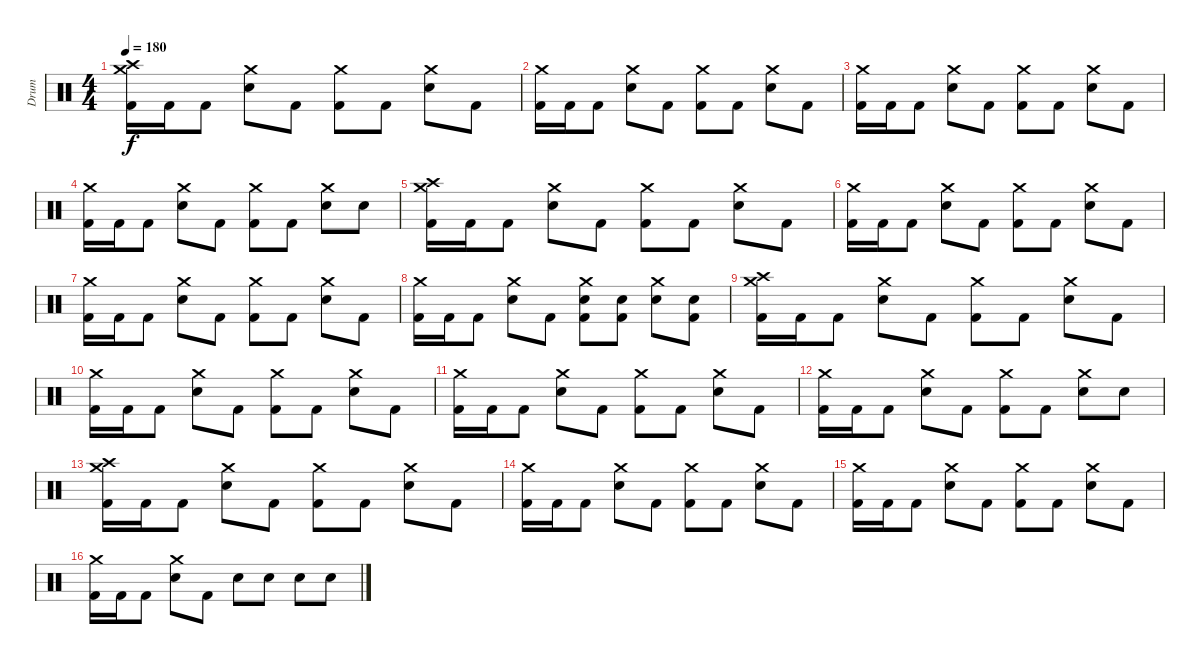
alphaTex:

\track ("Drum" "Drum") {instrument percussion}
\staff {score}
\articulation defaults
\ts (4 4)
\section ("" "")
\tempo 180
\clef neutral
\ks c
("Crash high (hit)" "Crash medium (hit)" "Kick (hit) 2").16{dy f} "Kick (hit) 2".16 "Kick (hit) 2".8 ("Crash medium (hit)" "Snare (hit) 2").8 "Kick (hit) 2".8 ("Crash medium (hit)" "Kick (hit) 2").8 "Kick (hit) 2".8 ("Crash medium (hit)" "Snare (hit) 2").8 "Kick (hit) 2".8 |
("Crash medium (hit)" "Kick (hit) 2").16 "Kick (hit) 2".16 "Kick (hit) 2".8 ("Crash medium (hit)" "Snare (hit) 2").8 "Kick (hit) 2".8 ("Crash medium (hit)" "Kick (hit) 2").8 "Kick (hit) 2".8 ("Crash medium (hit)" "Snare (hit) 2").8 "Kick (hit) 2".8 |
("Crash medium (hit)" "Kick (hit) 2").16 "Kick (hit) 2".16 "Kick (hit) 2".8 ("Crash medium (hit)" "Snare (hit) 2").8 "Kick (hit) 2".8 ("Crash medium (hit)" "Kick (hit) 2").8 "Kick (hit) 2".8 ("Crash medium (hit)" "Snare (hit) 2").8 "Kick (hit) 2".8 |
("Crash medium (hit)" "Kick (hit) 2").16 "Kick (hit) 2".16 "Kick (hit) 2".8 ("Crash medium (hit)" "Snare (hit) 2").8 "Kick (hit) 2".8 ("Crash medium (hit)" "Kick (hit) 2").8 "Kick (hit) 2".8 ("Crash medium (hit)" "Snare (hit) 2").8 "Snare (hit) 2".8 |
("Crash high (hit)" "Crash medium (hit)" "Kick (hit) 2").16 "Kick (hit) 2".16 "Kick (hit) 2".8 ("Crash medium (hit)" "Snare (hit) 2").8 "Kick (hit) 2".8 ("Crash medium (hit)" "Kick (hit) 2").8 "Kick (hit) 2".8 ("Crash medium (hit)" "Snare (hit) 2").8 "Kick (hit) 2".8 |
("Crash medium (hit)" "Kick (hit) 2").16 "Kick (hit) 2".16 "Kick (hit) 2".8 ("Crash medium (hit)" "Snare (hit) 2").8 "Kick (hit) 2".8 ("Crash medium (hit)" "Kick (hit) 2").8 "Kick (hit) 2".8 ("Crash medium (hit)" "Snare (hit) 2").8 "Kick (hit) 2".8 |
("Crash medium (hit)" "Kick (hit) 2").16 "Kick (hit) 2".16 "Kick (hit) 2".8 ("Crash medium (hit)" "Snare (hit) 2").8 "Kick (hit) 2".8 ("Crash medium (hit)" "Kick (hit) 2").8 "Kick (hit) 2".8 ("Crash medium (hit)" "Snare (hit) 2").8 "Kick (hit) 2".8 |
("Crash medium (hit)" "Kick (hit) 2").16 "Kick (hit) 2".16 "Kick (hit) 2".8 ("Crash medium (hit)" "Snare (hit) 2").8 "Kick (hit) 2".8 ("Crash medium (hit)" "Snare (hit) 2" "Kick (hit) 2").8 ("Snare (hit) 2" "Kick (hit) 2").8 ("Crash medium (hit)" "Snare (hit) 2").8 ("Snare (hit) 2" "Kick (hit) 2").8 |
("Crash high (hit)" "Crash medium (hit)" "Kick (hit) 2").16 "Kick (hit) 2".16 "Kick (hit) 2".8 ("Crash medium (hit)" "Snare (hit) 2").8 "Kick (hit) 2".8 ("Crash medium (hit)" "Kick (hit) 2").8 "Kick (hit) 2".8 ("Crash medium (hit)" "Snare (hit) 2").8 "Kick (hit) 2".8 |
("Crash medium (hit)" "Kick (hit) 2").16 "Kick (hit) 2".16 "Kick (hit) 2".8 ("Crash medium (hit)" "Snare (hit) 2").8 "Kick (hit) 2".8 ("Crash medium (hit)" "Kick (hit) 2").8 "Kick (hit) 2".8 ("Crash medium (hit)" "Snare (hit) 2").8 "Kick (hit) 2".8 |
("Crash medium (hit)" "Kick (hit) 2").16 "Kick (hit) 2".16 "Kick (hit) 2".8 ("Crash medium (hit)" "Snare (hit) 2").8 "Kick (hit) 2".8 ("Crash medium (hit)" "Kick (hit) 2").8 "Kick (hit) 2".8 ("Crash medium (hit)" "Snare (hit) 2").8 "Kick (hit) 2".8 |
("Crash medium (hit)" "Kick (hit) 2").16 "Kick (hit) 2".16 "Kick (hit) 2".8 ("Crash medium (hit)" "Snare (hit) 2").8 "Kick (hit) 2".8 ("Crash medium (hit)" "Kick (hit) 2").8 "Kick (hit) 2".8 ("Crash medium (hit)" "Snare (hit) 2").8 "Snare (hit) 2".8 |
("Crash high (hit)" "Crash medium (hit)" "Kick (hit) 2").16 "Kick (hit) 2".16 "Kick (hit) 2".8 ("Crash medium (hit)" "Snare (hit) 2").8 "Kick (hit) 2".8 ("Crash medium (hit)" "Kick (hit) 2").8 "Kick (hit) 2".8 ("Crash medium (hit)" "Snare (hit) 2").8 "Kick (hit) 2".8 |
("Crash medium (hit)" "Kick (hit) 2").16 "Kick (hit) 2".16 "Kick (hit) 2".8 ("Crash medium (hit)" "Snare (hit) 2").8 "Kick (hit) 2".8 ("Crash medium (hit)" "Kick (hit) 2").8 "Kick (hit) 2".8 ("Crash medium (hit)" "Snare (hit) 2").8 "Kick (hit) 2".8 |
("Crash medium (hit)" "Kick (hit) 2").16 "Kick (hit) 2".16 "Kick (hit) 2".8 ("Crash medium (hit)" "Snare (hit) 2").8 "Kick (hit) 2".8 ("Crash medium (hit)" "Kick (hit) 2").8 "Kick (hit) 2".8 ("Crash medium (hit)" "Snare (hit) 2").8 "Kick (hit) 2".8 |
("Crash medium (hit)" "Kick (hit) 2").16 "Kick (hit) 2".16 "Kick (hit) 2".8 ("Crash medium (hit)" "Snare (hit) 2").8 "Kick (hit) 2".8 "Snare (hit) 2".8 "Snare (hit) 2".8 "Snare (hit) 2".8 "Snare (hit) 2".8
